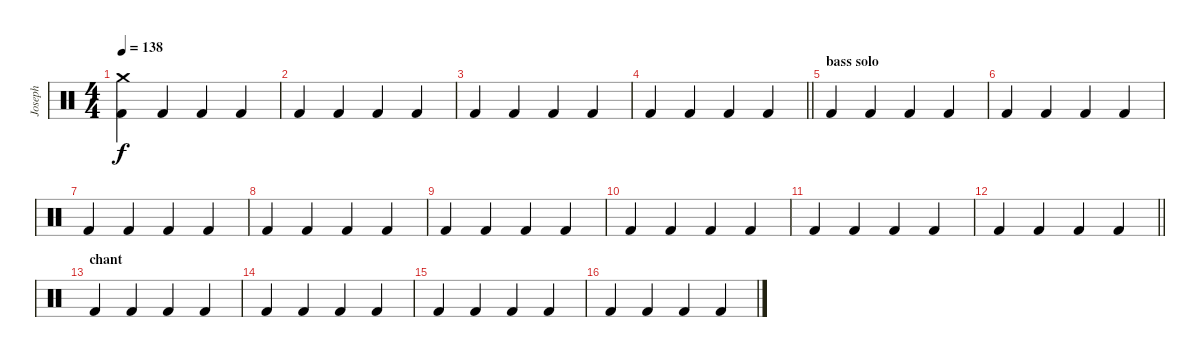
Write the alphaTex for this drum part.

\track ("Joseph" "Joseph") {instrument percussion}
\staff {score}
\articulation defaults
\ts (4 4)
\tempo 138
\clef neutral
\ks c
("Crash medium (hit)" "Kick (hit) 2").4{dy f volume 16} "Kick (hit) 2".4 "Kick (hit) 2".4 "Kick (hit) 2".4 |
"Kick (hit) 2".4 "Kick (hit) 2".4 "Kick (hit) 2".4 "Kick (hit) 2".4 |
"Kick (hit) 2".4 "Kick (hit) 2".4 "Kick (hit) 2".4 "Kick (hit) 2".4 |
\barLineRight lightlight "Kick (hit) 2".4 "Kick (hit) 2".4 "Kick (hit) 2".4 "Kick (hit) 2".4
|
\section ("" "bass solo")
"Kick (hit) 2".4 "Kick (hit) 2".4 "Kick (hit) 2".4 "Kick (hit) 2".4 |
"Kick (hit) 2".4 "Kick (hit) 2".4 "Kick (hit) 2".4 "Kick (hit) 2".4 |
"Kick (hit) 2".4 "Kick (hit) 2".4 "Kick (hit) 2".4 "Kick (hit) 2".4 |
"Kick (hit) 2".4 "Kick (hit) 2".4 "Kick (hit) 2".4 "Kick (hit) 2".4 |
"Kick (hit) 2".4 "Kick (hit) 2".4 "Kick (hit) 2".4 "Kick (hit) 2".4 |
"Kick (hit) 2".4 "Kick (hit) 2".4 "Kick (hit) 2".4 "Kick (hit) 2".4 |
"Kick (hit) 2".4 "Kick (hit) 2".4 "Kick (hit) 2".4 "Kick (hit) 2".4 |
\barLineRight lightlight "Kick (hit) 2".4 "Kick (hit) 2".4 "Kick (hit) 2".4 "Kick (hit) 2".4
|
\section ("" "chant")
"Kick (hit) 2".4 "Kick (hit) 2".4 "Kick (hit) 2".4 "Kick (hit) 2".4 |
"Kick (hit) 2".4 "Kick (hit) 2".4 "Kick (hit) 2".4 "Kick (hit) 2".4 |
"Kick (hit) 2".4 "Kick (hit) 2".4 "Kick (hit) 2".4 "Kick (hit) 2".4 |
"Kick (hit) 2".4 "Kick (hit) 2".4 "Kick (hit) 2".4 "Kick (hit) 2".4
